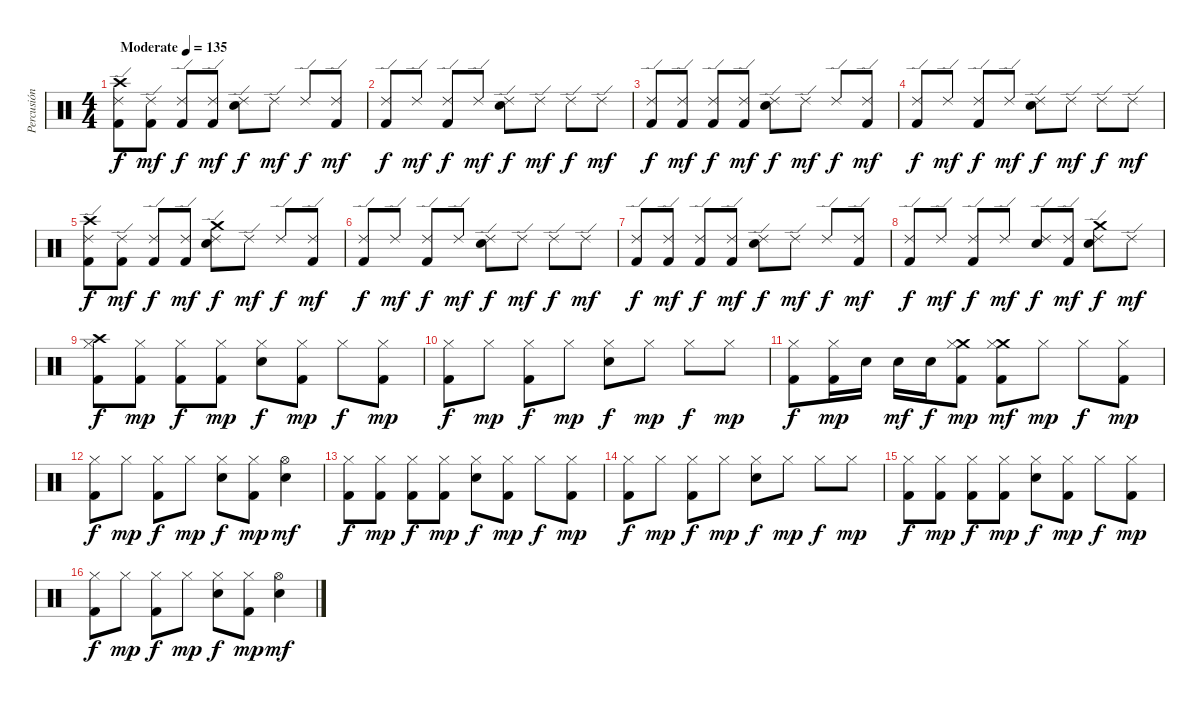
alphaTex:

\track ("Percusión" "Percusión") {instrument percussion}
\staff {score}
\articulation defaults
\ts (4 4)
\tempo (135 "Moderate")
\clef neutral
\ks c
("Crash high (hit)" "Ride (edge) 2" "Kick (hit) 2").8{dy f} ("Ride (edge) 2" "Kick (hit) 2").8{dy mf} ("Ride (edge) 2" "Kick (hit) 2").8{dy f} ("Ride (edge) 2" "Kick (hit) 2").8{dy mf} ("Ride (edge) 2" "Electric Snare (hit)").8{dy f} "Ride (edge) 2".8{dy mf} "Ride (edge) 2".8{dy f} ("Ride (edge) 2" "Kick (hit) 2").8{dy mf} |
("Ride (edge) 2" "Kick (hit) 2").8{dy f} "Ride (edge) 2".8{dy mf} ("Ride (edge) 2" "Kick (hit) 2").8{dy f} "Ride (edge) 2".8{dy mf} ("Ride (edge) 2" "Electric Snare (hit)").8{dy f} "Ride (edge) 2".8{dy mf} "Ride (edge) 2".8{dy f} "Ride (edge) 2".8{dy mf} |
("Ride (edge) 2" "Kick (hit) 2").8{dy f} ("Ride (edge) 2" "Kick (hit) 2").8{dy mf} ("Ride (edge) 2" "Kick (hit) 2").8{dy f} ("Ride (edge) 2" "Kick (hit) 2").8{dy mf} ("Ride (edge) 2" "Electric Snare (hit)").8{dy f} "Ride (edge) 2".8{dy mf} "Ride (edge) 2".8{dy f} ("Ride (edge) 2" "Kick (hit) 2").8{dy mf} |
("Ride (edge) 2" "Kick (hit) 2").8{dy f} "Ride (edge) 2".8{dy mf} ("Ride (edge) 2" "Kick (hit) 2").8{dy f} "Ride (edge) 2".8{dy mf} ("Ride (edge) 2" "Electric Snare (hit)").8{dy f} "Ride (edge) 2".8{dy mf} "Ride (edge) 2".8{dy f} "Ride (edge) 2".8{dy mf} |
("Crash high (hit)" "Ride (edge) 2" "Kick (hit) 2").8{dy f} ("Ride (edge) 2" "Kick (hit) 2").8{dy mf} ("Ride (edge) 2" "Kick (hit) 2").8{dy f} ("Ride (edge) 2" "Kick (hit) 2").8{dy mf} ("Crash medium (hit)" "Ride (edge) 2" "Electric Snare (hit)").8{dy f} "Ride (edge) 2".8{dy mf} "Ride (edge) 2".8{dy f} ("Ride (edge) 2" "Kick (hit) 2").8{dy mf} |
("Ride (edge) 2" "Kick (hit) 2").8{dy f} "Ride (edge) 2".8{dy mf} ("Ride (edge) 2" "Kick (hit) 2").8{dy f} "Ride (edge) 2".8{dy mf} ("Ride (edge) 2" "Electric Snare (hit)").8{dy f} "Ride (edge) 2".8{dy mf} "Ride (edge) 2".8{dy f} "Ride (edge) 2".8{dy mf} |
("Ride (edge) 2" "Kick (hit) 2").8{dy f} ("Ride (edge) 2" "Kick (hit) 2").8{dy mf} ("Ride (edge) 2" "Kick (hit) 2").8{dy f} ("Ride (edge) 2" "Kick (hit) 2").8{dy mf} ("Ride (edge) 2" "Electric Snare (hit)").8{dy f} "Ride (edge) 2".8{dy mf} "Ride (edge) 2".8{dy f} ("Ride (edge) 2" "Kick (hit) 2").8{dy mf} |
("Ride (edge) 2" "Kick (hit) 2").8{dy f} "Ride (edge) 2".8{dy mf} ("Ride (edge) 2" "Kick (hit) 2").8{dy f} "Ride (edge) 2".8{dy mf} ("Ride (edge) 2" "Electric Snare (hit)").8{dy f} ("Ride (edge) 2" "Kick (hit) 2").8{dy mf} ("Crash medium (hit)" "Ride (edge) 2" "Electric Snare (hit)").8{dy f} "Ride (edge) 2".8{dy mf} |
("Crash high (hit)" "Hi-Hat (closed)" "Kick (hit) 2").8{dy f} ("Hi-Hat (closed)" "Kick (hit) 2").8{dy mp} ("Hi-Hat (closed)" "Kick (hit) 2").8{dy f} ("Hi-Hat (closed)" "Kick (hit) 2").8{dy mp} ("Hi-Hat (closed)" "Electric Snare (hit)").8{dy f} ("Hi-Hat (closed)" "Kick (hit) 2").8{dy mp} "Hi-Hat (closed)".8{dy f} ("Hi-Hat (closed)" "Kick (hit) 2").8{dy mp} |
("Hi-Hat (closed)" "Kick (hit) 2").8{dy f} "Hi-Hat (closed)".8{dy mp} ("Hi-Hat (closed)" "Kick (hit) 2").8{dy f} "Hi-Hat (closed)".8{dy mp} ("Hi-Hat (closed)" "Electric Snare (hit)").8{dy f} "Hi-Hat (closed)".8{dy mp} "Hi-Hat (closed)".8{dy f} "Hi-Hat (closed)".8{dy mp} |
("Hi-Hat (closed)" "Kick (hit) 2").8{dy f} ("Hi-Hat (closed)" "Kick (hit) 2").16{dy mp} "Electric Snare (hit)".16 "Electric Snare (hit)".16{dy mf} "Electric Snare (hit)".16{dy f} ("Crash medium (hit)" "Hi-Hat (closed)" "Kick (hit) 2").8{dy mp} ("Crash medium (hit)" "Hi-Hat (closed)" "Kick (hit) 2").8{dy mf} "Hi-Hat (closed)".8{dy mp} "Hi-Hat (closed)".8{dy f} ("Hi-Hat (closed)" "Kick (hit) 2").8{dy mp} |
("Hi-Hat (closed)" "Kick (hit) 2").8{dy f} "Hi-Hat (closed)".8{dy mp} ("Hi-Hat (closed)" "Kick (hit) 2").8{dy f} "Hi-Hat (closed)".8{dy mp} ("Hi-Hat (closed)" "Electric Snare (hit)").8{dy f} ("Hi-Hat (closed)" "Kick (hit) 2").8{dy mp} ("Hi-Hat (open)" "Electric Snare (hit)").4{dy mf} |
("Hi-Hat (closed)" "Kick (hit) 2").8{dy f} ("Hi-Hat (closed)" "Kick (hit) 2").8{dy mp} ("Hi-Hat (closed)" "Kick (hit) 2").8{dy f} ("Hi-Hat (closed)" "Kick (hit) 2").8{dy mp} ("Hi-Hat (closed)" "Electric Snare (hit)").8{dy f} ("Hi-Hat (closed)" "Kick (hit) 2").8{dy mp} "Hi-Hat (closed)".8{dy f} ("Hi-Hat (closed)" "Kick (hit) 2").8{dy mp} |
("Hi-Hat (closed)" "Kick (hit) 2").8{dy f} "Hi-Hat (closed)".8{dy mp} ("Hi-Hat (closed)" "Kick (hit) 2").8{dy f} "Hi-Hat (closed)".8{dy mp} ("Hi-Hat (closed)" "Electric Snare (hit)").8{dy f} "Hi-Hat (closed)".8{dy mp} "Hi-Hat (closed)".8{dy f} "Hi-Hat (closed)".8{dy mp} |
("Hi-Hat (closed)" "Kick (hit) 2").8{dy f} ("Hi-Hat (closed)" "Kick (hit) 2").8{dy mp} ("Hi-Hat (closed)" "Kick (hit) 2").8{dy f} ("Hi-Hat (closed)" "Kick (hit) 2").8{dy mp} ("Hi-Hat (closed)" "Electric Snare (hit)").8{dy f} ("Hi-Hat (closed)" "Kick (hit) 2").8{dy mp} "Hi-Hat (closed)".8{dy f} ("Hi-Hat (closed)" "Kick (hit) 2").8{dy mp} |
("Hi-Hat (closed)" "Kick (hit) 2").8{dy f} "Hi-Hat (closed)".8{dy mp} ("Hi-Hat (closed)" "Kick (hit) 2").8{dy f} "Hi-Hat (closed)".8{dy mp} ("Hi-Hat (closed)" "Electric Snare (hit)").8{dy f} ("Hi-Hat (closed)" "Kick (hit) 2").8{dy mp} ("Hi-Hat (open)" "Electric Snare (hit)").4{dy mf}
